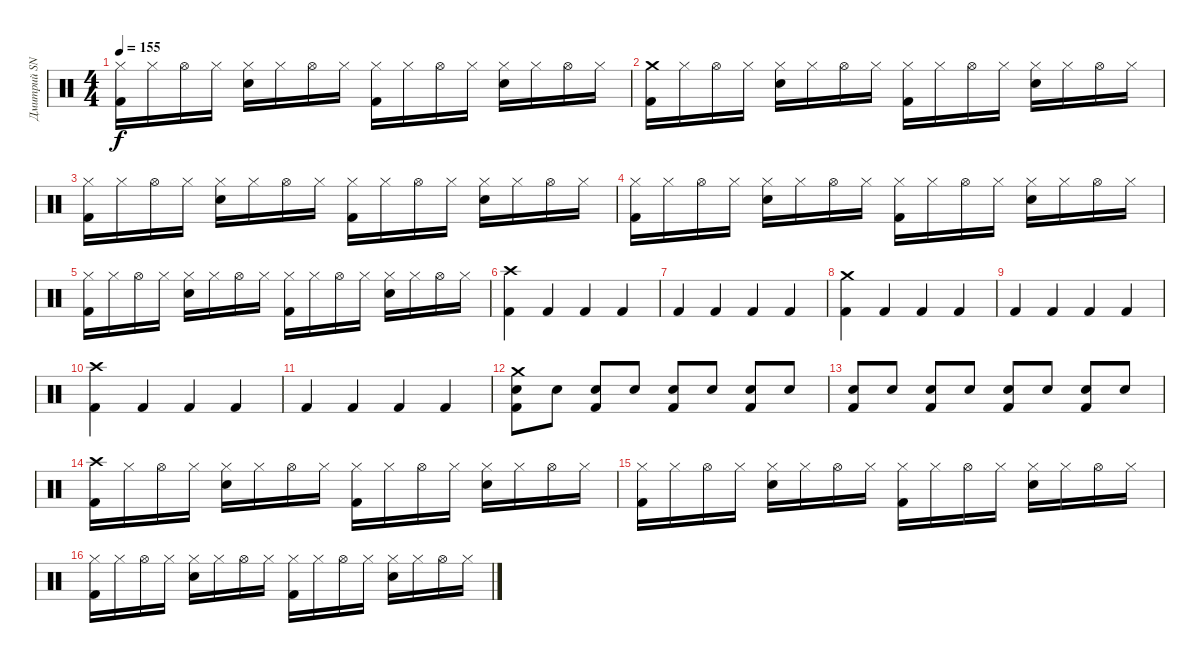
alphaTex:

\track ("Дмитрий SNAKE Хакимов" "Дмитрий SN") {instrument percussion}
\staff {score}
\articulation defaults
\ts (4 4)
\tempo 155
\clef neutral
\ks c
("Hi-Hat (closed)" "Kick (hit) 2").16{dy f} "Hi-Hat (closed)".16 "Hi-Hat (open)".16 "Hi-Hat (closed)".16 ("Hi-Hat (closed)" "Snare (hit) 2").16 "Hi-Hat (closed)".16 "Hi-Hat (open)".16 "Hi-Hat (closed)".16 ("Hi-Hat (closed)" "Kick (hit) 2").16 "Hi-Hat (closed)".16 "Hi-Hat (open)".16 "Hi-Hat (closed)".16 ("Hi-Hat (closed)" "Snare (hit) 2").16 "Hi-Hat (closed)".16 "Hi-Hat (open)".16 "Hi-Hat (closed)".16 |
("Crash medium (hit)" "Kick (hit) 2").16 "Hi-Hat (closed)".16 "Hi-Hat (open)".16 "Hi-Hat (closed)".16 ("Hi-Hat (closed)" "Snare (hit) 2").16 "Hi-Hat (closed)".16 "Hi-Hat (open)".16 "Hi-Hat (closed)".16 ("Hi-Hat (closed)" "Kick (hit) 2").16 "Hi-Hat (closed)".16 "Hi-Hat (open)".16 "Hi-Hat (closed)".16 ("Hi-Hat (closed)" "Snare (hit) 2").16 "Hi-Hat (closed)".16 "Hi-Hat (open)".16 "Hi-Hat (closed)".16 |
("Hi-Hat (closed)" "Kick (hit) 2").16 "Hi-Hat (closed)".16 "Hi-Hat (open)".16 "Hi-Hat (closed)".16 ("Hi-Hat (closed)" "Snare (hit) 2").16 "Hi-Hat (closed)".16 "Hi-Hat (open)".16 "Hi-Hat (closed)".16 ("Hi-Hat (closed)" "Kick (hit) 2").16 "Hi-Hat (closed)".16 "Hi-Hat (open)".16 "Hi-Hat (closed)".16 ("Hi-Hat (closed)" "Snare (hit) 2").16 "Hi-Hat (closed)".16 "Hi-Hat (open)".16 "Hi-Hat (closed)".16 |
("Hi-Hat (closed)" "Kick (hit) 2").16 "Hi-Hat (closed)".16 "Hi-Hat (open)".16 "Hi-Hat (closed)".16 ("Hi-Hat (closed)" "Snare (hit) 2").16 "Hi-Hat (closed)".16 "Hi-Hat (open)".16 "Hi-Hat (closed)".16 ("Hi-Hat (closed)" "Kick (hit) 2").16 "Hi-Hat (closed)".16 "Hi-Hat (open)".16 "Hi-Hat (closed)".16 ("Hi-Hat (closed)" "Snare (hit) 2").16 "Hi-Hat (closed)".16 "Hi-Hat (open)".16 "Hi-Hat (closed)".16 |
("Hi-Hat (closed)" "Kick (hit) 2").16 "Hi-Hat (closed)".16 "Hi-Hat (open)".16 "Hi-Hat (closed)".16 ("Hi-Hat (closed)" "Snare (hit) 2").16 "Hi-Hat (closed)".16 "Hi-Hat (open)".16 "Hi-Hat (closed)".16 ("Hi-Hat (closed)" "Kick (hit) 2").16 "Hi-Hat (closed)".16 "Hi-Hat (open)".16 "Hi-Hat (closed)".16 ("Hi-Hat (closed)" "Snare (hit) 2").16 "Hi-Hat (closed)".16 "Hi-Hat (open)".16 "Hi-Hat (closed)".16 |
("Crash high (hit)" "Kick (hit) 2").4 "Kick (hit) 2".4 "Kick (hit) 2".4 "Kick (hit) 2".4 |
"Kick (hit) 2".4 "Kick (hit) 2".4 "Kick (hit) 2".4 "Kick (hit) 2".4 |
("Crash medium (hit)" "Kick (hit) 2").4 "Kick (hit) 2".4 "Kick (hit) 2".4 "Kick (hit) 2".4 |
"Kick (hit) 2".4 "Kick (hit) 2".4 "Kick (hit) 2".4 "Kick (hit) 2".4 |
("Crash high (hit)" "Kick (hit) 2").4 "Kick (hit) 2".4 "Kick (hit) 2".4 "Kick (hit) 2".4 |
"Kick (hit) 2".4 "Kick (hit) 2".4 "Kick (hit) 2".4 "Kick (hit) 2".4 |
("Crash medium (hit)" "Snare (hit) 2" "Kick (hit) 2").8 "Snare (hit) 2".8 ("Snare (hit) 2" "Kick (hit) 2").8 "Snare (hit) 2".8 ("Snare (hit) 2" "Kick (hit) 2").8 "Snare (hit) 2".8 ("Snare (hit) 2" "Kick (hit) 2").8 "Snare (hit) 2".8 |
("Snare (hit) 2" "Kick (hit) 2").8 "Snare (hit) 2".8 ("Snare (hit) 2" "Kick (hit) 2").8 "Snare (hit) 2".8 ("Snare (hit) 2" "Kick (hit) 2").8 "Snare (hit) 2".8 ("Snare (hit) 2" "Kick (hit) 2").8 "Snare (hit) 2".8 |
("Crash high (hit)" "Kick (hit) 2").16 "Hi-Hat (closed)".16 "Hi-Hat (open)".16 "Hi-Hat (closed)".16 ("Hi-Hat (closed)" "Snare (hit) 2").16 "Hi-Hat (closed)".16 "Hi-Hat (open)".16 "Hi-Hat (closed)".16 ("Hi-Hat (closed)" "Kick (hit) 2").16 "Hi-Hat (closed)".16 "Hi-Hat (open)".16 "Hi-Hat (closed)".16 ("Hi-Hat (closed)" "Snare (hit) 2").16 "Hi-Hat (closed)".16 "Hi-Hat (open)".16 "Hi-Hat (closed)".16 |
("Hi-Hat (closed)" "Kick (hit) 2").16 "Hi-Hat (closed)".16 "Hi-Hat (open)".16 "Hi-Hat (closed)".16 ("Hi-Hat (closed)" "Snare (hit) 2").16 "Hi-Hat (closed)".16 "Hi-Hat (open)".16 "Hi-Hat (closed)".16 ("Hi-Hat (closed)" "Kick (hit) 2").16 "Hi-Hat (closed)".16 "Hi-Hat (open)".16 "Hi-Hat (closed)".16 ("Hi-Hat (closed)" "Snare (hit) 2").16 "Hi-Hat (closed)".16 "Hi-Hat (open)".16 "Hi-Hat (closed)".16 |
("Hi-Hat (closed)" "Kick (hit) 2").16 "Hi-Hat (closed)".16 "Hi-Hat (open)".16 "Hi-Hat (closed)".16 ("Hi-Hat (closed)" "Snare (hit) 2").16 "Hi-Hat (closed)".16 "Hi-Hat (open)".16 "Hi-Hat (closed)".16 ("Hi-Hat (closed)" "Kick (hit) 2").16 "Hi-Hat (closed)".16 "Hi-Hat (open)".16 "Hi-Hat (closed)".16 ("Hi-Hat (closed)" "Snare (hit) 2").16 "Hi-Hat (closed)".16 "Hi-Hat (open)".16 "Hi-Hat (closed)".16
